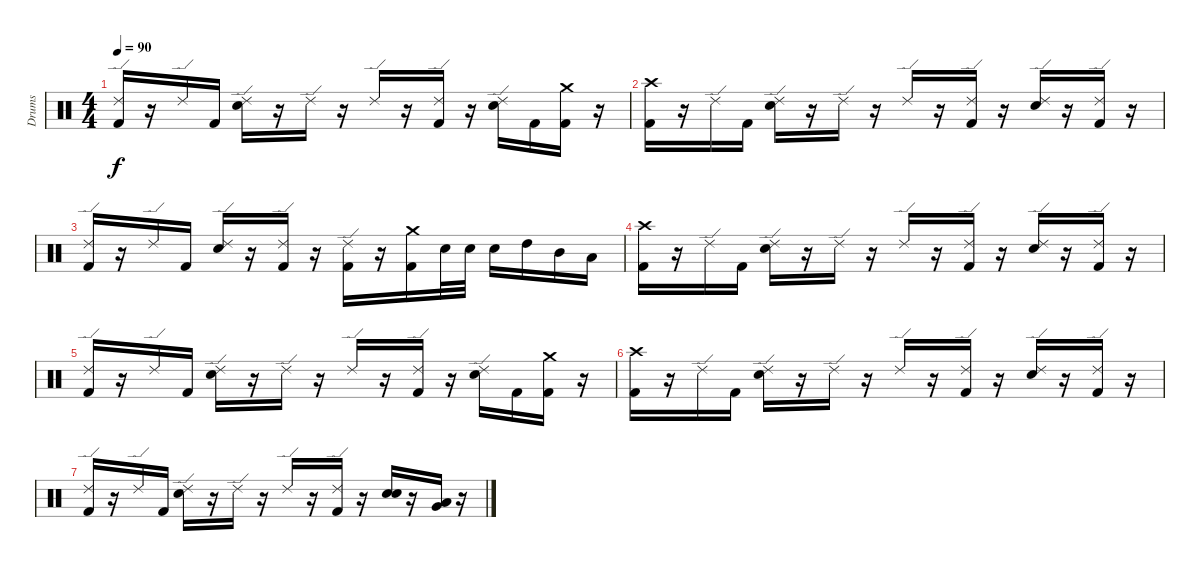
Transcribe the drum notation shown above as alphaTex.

\track ("Drums" "Drums") {instrument percussion}
\staff {score}
\articulation defaults
\ts (4 4)
\tempo 90
\clef neutral
\ks c
("Ride (edge) 2" "Kick (hit) 2").16{dy f} r.16 "Ride (edge) 2".16 "Kick (hit) 2".16 ("Ride (edge) 2" "Electric Snare (hit)").16 r.16 "Ride (edge) 2".16 r.16 "Ride (edge) 2".16 r.16 ("Ride (edge) 2" "Kick (hit) 2").16 r.16 ("Ride (edge) 2" "Electric Snare (hit)").16 "Kick (hit) 2".16 ("Crash medium (hit)" "Kick (hit) 2").16 r.16 |
("Crash high (hit)" "Kick (hit) 2").16 r.16 "Ride (edge) 2".16 "Kick (hit) 2".16 ("Ride (edge) 2" "Electric Snare (hit)").16 r.16 "Ride (edge) 2".16 r.16 "Ride (edge) 2".16 r.16 ("Ride (edge) 2" "Kick (hit) 2").16 r.16 ("Ride (edge) 2" "Electric Snare (hit)").16 r.16 ("Ride (edge) 2" "Kick (hit) 2").16 r.16 |
("Ride (edge) 2" "Kick (hit) 2").16 r.16 "Ride (edge) 2".16 "Kick (hit) 2".16 ("Ride (edge) 2" "Electric Snare (hit)").16 r.16 ("Ride (edge) 2" "Kick (hit) 2").16 r.16 ("Ride (edge) 2" "Kick (hit) 2").16 r.16 ("Crash medium (hit)" "Kick (hit) 2").16 "Electric Snare (hit)".32 "Electric Snare (hit)".32 "Electric Snare (hit)".16 "High Tom (hit)".16 "Mid Tom (hit)".16 "Low Tom (hit)".16 |
("Crash high (hit)" "Kick (hit) 2").16{volume 0} r.16 "Ride (edge) 2".16 "Kick (hit) 2".16 ("Ride (edge) 2" "Electric Snare (hit)").16 r.16 "Ride (edge) 2".16 r.16 "Ride (edge) 2".16 r.16 ("Ride (edge) 2" "Kick (hit) 2").16 r.16 ("Ride (edge) 2" "Electric Snare (hit)").16 r.16 ("Ride (edge) 2" "Kick (hit) 2").16 r.16 |
("Ride (edge) 2" "Kick (hit) 2").16 r.16 "Ride (edge) 2".16 "Kick (hit) 2".16 ("Ride (edge) 2" "Electric Snare (hit)").16 r.16 "Ride (edge) 2".16 r.16 "Ride (edge) 2".16 r.16 ("Ride (edge) 2" "Kick (hit) 2").16 r.16 ("Ride (edge) 2" "Electric Snare (hit)").16 "Kick (hit) 2".16 ("Crash medium (hit)" "Kick (hit) 2").16 r.16 |
("Crash high (hit)" "Kick (hit) 2").16 r.16 "Ride (edge) 2".16 "Kick (hit) 2".16 ("Ride (edge) 2" "Electric Snare (hit)").16 r.16 "Ride (edge) 2".16 r.16 "Ride (edge) 2".16 r.16 ("Ride (edge) 2" "Kick (hit) 2").16 r.16 ("Ride (edge) 2" "Electric Snare (hit)").16 r.16 ("Ride (edge) 2" "Kick (hit) 2").16 r.16 |
("Ride (edge) 2" "Kick (hit) 2").16 r.16 "Ride (edge) 2".16 "Kick (hit) 2".16 ("Ride (edge) 2" "Electric Snare (hit)").16 r.16 "Ride (edge) 2".16 r.16 "Ride (edge) 2".16 r.16 ("Ride (edge) 2" "Kick (hit) 2").16 r.16 ("Electric Snare (hit)" "Electric Snare (hit)").16{bd 120} r.16 ("Very Low Tom (hit)" "Low Tom (hit)").16{bd 120} r.16
